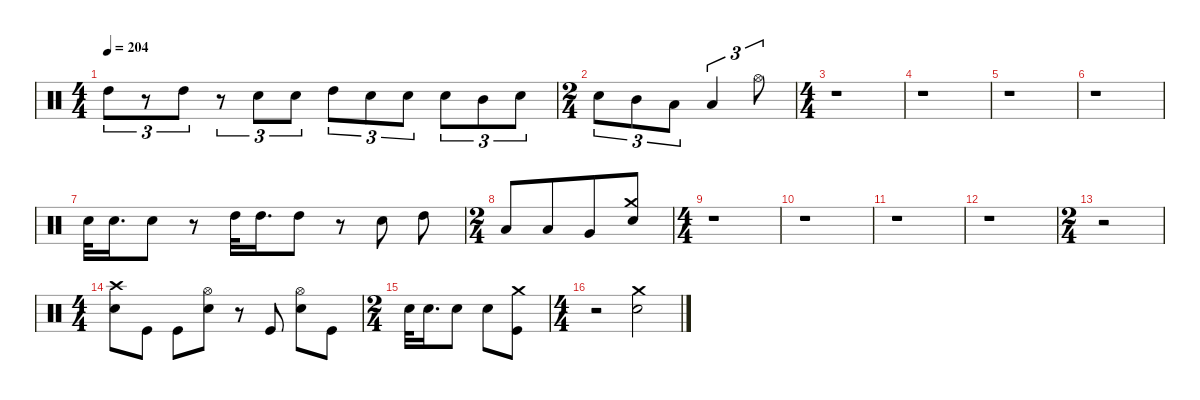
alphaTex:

\defaultSystemsLayout 4
\hideDynamics
\bracketExtendMode nobrackets
\singleTrackTrackNamePolicy hidden
\multiTrackTrackNamePolicy hidden
\firstSystemTrackNameMode fullname
\firstSystemTrackNameOrientation horizontal
\otherSystemsTrackNameOrientation horizontal
\track ("Drumkit" "drm.") {instrument percussion}
\staff {score}
\articulation defaults
\ts (4 4)
\beaming (8 2 2 2 2)
\tempo 204
\clef neutral
\ks c "High Tom (hit)".8{tu (3 2) dy f beam Down}
r.8{tu (3 2) beam Down} "High Tom (hit)".8{tu (3 2) beam Down} r.8{tu (3 2) beam Down} "Snare (hit) 2".8{tu (3 2) dy mp beam Down} "Snare (hit) 2".8{tu (3 2) beam Down} "High Tom (hit)".8{tu (3 2) dy f beam Down} "Snare (hit) 2".8{tu (3 2) dy mp beam Down} "Snare (hit) 2".8{tu (3 2) dy mf beam Down} "Snare (hit) 2".8{tu (3 2) dy f beam Down} "Mid Tom (hit)".8{tu (3 2) dy mf beam Down} "Snare (hit) 2".8{tu (3 2) dy f beam Down} |
\ts (2 4)
\beaming (8 2 2)
"Snare (hit) 2".8{tu (3 2) beam Down} "Mid Tom (hit)".8{tu (3 2) beam Down} "Low Tom (hit)".8{tu (3 2) beam Down} "Low Tom (hit)".4{tu (3 2) beam Up} "Hi-Hat (open)".8{tu (3 2) beam Down} |
\ts (4 4)
\beaming (8 2 2 2 2)
r.1{beam Down} |
r.1{beam Down} |
r.1{beam Down} |
r.1{beam Down} |
\beaming (8 3 2 2 1)
"Snare (hit) 2".32{beam Down} "Snare (hit) 2".16{d dy mp beam Down} "Snare (hit) 2".8{beam Down} r.8{beam Down} "High Tom (hit)".32{dy f beam Down} "High Tom (hit)".16{d beam Down} "High Tom (hit)".8{dy mp beam Down} r.8{beam Down} "Snare (hit) 2".8{dy f beam Down} "High Tom (hit)".8{beam Down} |
\ts (2 4)
\beaming (8 4)
"Low Tom (hit)".8{beam Up} "Low Tom (hit)".8{beam Up} "Very Low Tom (hit)".8{beam Up} ("Snare (hit) 2" "Crash medium (hit)").8{beam Up} |
\ts (4 4)
\beaming (8 3 2 2 1)
r.1{beam Down} |
\beaming (8 2 2 2 2)
r.1{beam Down} |
r.1{beam Down} |
r.1{beam Down} |
\ts (2 4)
\beaming (8 2 2)
r.2{beam Down} |
\ts (4 4)
\beaming (8 3 2 2 1)
("Snare (hit) 2" "Crash high (hit)").8{beam Down beam merge} "Kick (hit)".8{beam Down beam split} "Kick (hit)".8{beam Down beam merge} ("Hi-Hat (open)" "Snare (hit) 2").8{dy mp beam Down beam split} r.8{beam Down beam split} "Kick (hit)".8{dy f beam Up beam split} ("Hi-Hat (open)" "Snare (hit) 2").8{dy mp beam Down beam merge} "Kick (hit)".8{beam Down} |
\ts (2 4)
\beaming (8 4)
"Snare (hit) 2".32{dy f beam Down} "Snare (hit) 2".16{d beam Down} "Snare (hit) 2".8{beam Down beam split} "Snare (hit) 2".8{beam Down} ("Crash medium (hit)" "Kick (hit)").8{beam Down} |
\ts (4 4)
\beaming (8 2 2 2 2)
r.2{beam Down} ("Snare (hit) 2" "Crash medium (hit)").2{beam Down}
